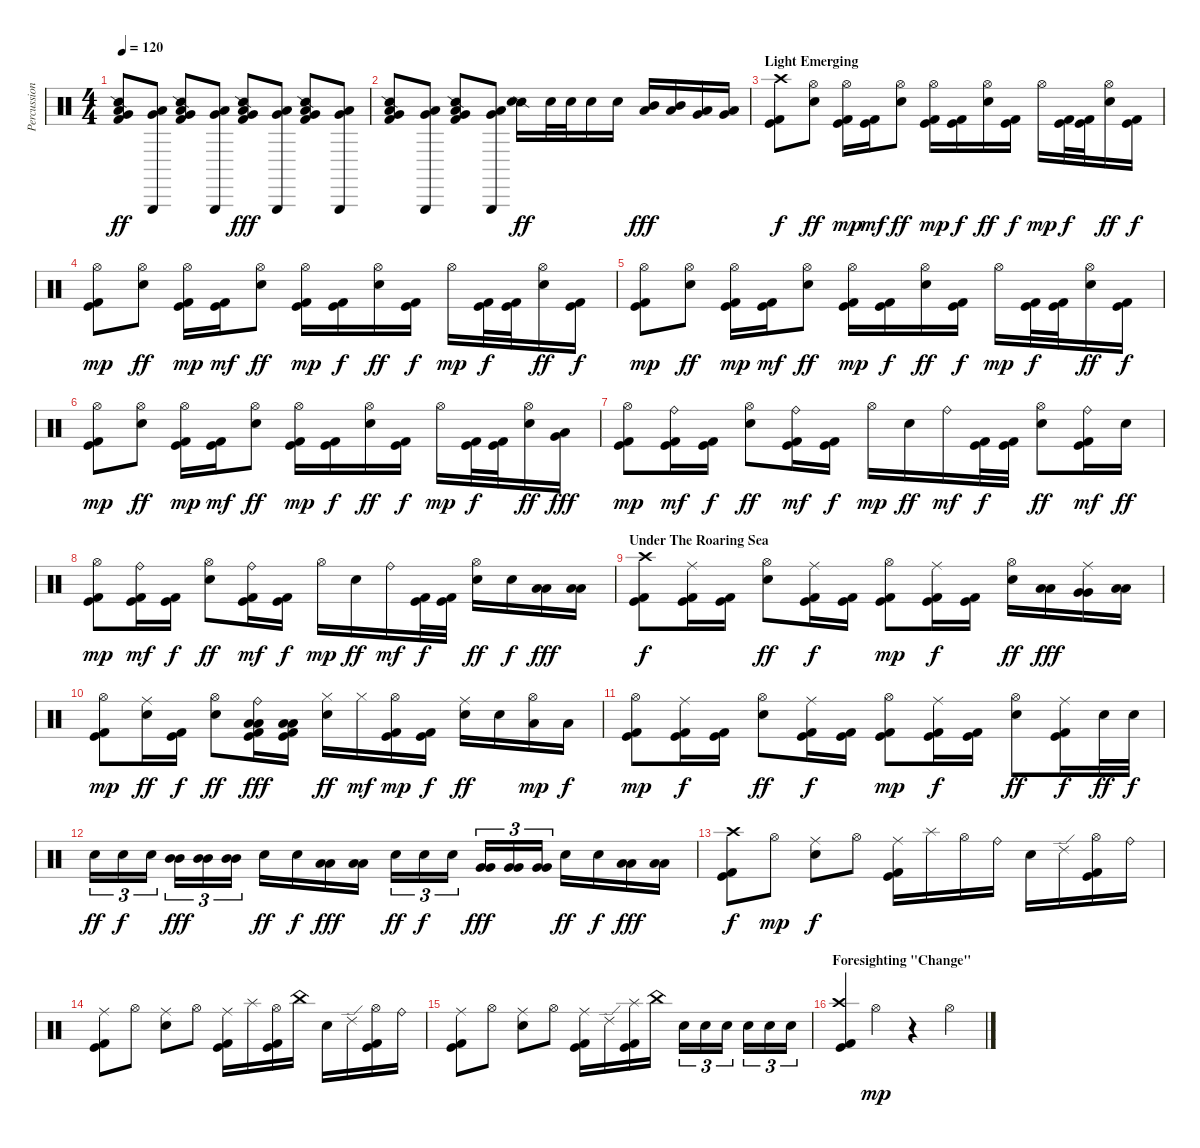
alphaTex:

\track ("Percussion" "Percussion") {instrument percussion}
\staff {score}
\articulation defaults
\ts (4 4)
\tempo 120
\clef neutral
\ks c
("Snare (side stick) 2" "Low Tom (hit)" "Very Low Tom (hit)" "Kick (hit) 2").8{dy ff} ("Triangle (hit)" "Low Tom (hit)" "Very Low Tom (hit)").8 ("Snare (side stick) 2" "Low Tom (hit)" "Very Low Tom (hit)" "Kick (hit) 2").8 ("Triangle (hit)" "Low Tom (hit)" "Very Low Tom (hit)").8 ("Snare (side stick) 2" "Low Tom (hit)" "Very Low Tom (hit)" "Kick (hit) 2").8{dy fff} ("Triangle (hit)" "Low Tom (hit)" "Very Low Tom (hit)").8 ("Snare (side stick) 2" "Low Tom (hit)" "Very Low Tom (hit)" "Kick (hit) 2").8 ("Triangle (hit)" "Low Tom (hit)" "Very Low Tom (hit)").8 |
("Snare (side stick) 2" "Low Tom (hit)" "Very Low Tom (hit)" "Kick (hit) 2").8 ("Triangle (hit)" "Low Tom (hit)" "Very Low Tom (hit)").8 ("Snare (side stick) 2" "Low Tom (hit)" "Very Low Tom (hit)" "Kick (hit) 2").8 ("Triangle (hit)" "Low Tom (hit)" "Very Low Tom (hit)").8 ("Snare (side stick) 2" "Snare (hit) 2").16{dy ff} "Snare (hit) 2".32 "Snare (hit) 2".32 "Snare (hit) 2".16 "Snare (hit) 2".16 ("Mid Tom (hit)" "Low Tom (hit)").16{dy fff} ("Mid Tom (hit)" "Low Tom (hit)").16 ("Low Tom (hit)" "Very Low Tom (hit)").16 ("Low Tom (hit)" "Very Low Tom (hit)").16 |
\section ("" "Light Emerging")
("Crash high (hit)" "Kick (hit)" "Kick (hit) 2").8{dy f} ("Hi-Hat (open)" "Snare (hit) 2").8{dy ff} ("Hi-Hat (open)" "Kick (hit)" "Kick (hit) 2").16{dy mp} ("Kick (hit)" "Kick (hit) 2").16{dy mf} ("Hi-Hat (open)" "Snare (hit) 2").8{dy ff} ("Hi-Hat (open)" "Kick (hit)" "Kick (hit) 2").16{dy mp} ("Kick (hit)" "Kick (hit) 2").16{dy f} ("Hi-Hat (open)" "Snare (hit) 2").16{dy ff} ("Kick (hit)" "Kick (hit) 2").16{dy f} "Hi-Hat (open)".16{dy mp} ("Kick (hit)" "Kick (hit) 2").32{dy f} ("Kick (hit)" "Kick (hit) 2").32 ("Hi-Hat (open)" "Snare (hit) 2").16{dy ff} ("Kick (hit)" "Kick (hit) 2").16{dy f} |
("Hi-Hat (open)" "Kick (hit)" "Kick (hit) 2").8{dy mp} ("Hi-Hat (open)" "Snare (hit) 2").8{dy ff} ("Hi-Hat (open)" "Kick (hit)" "Kick (hit) 2").16{dy mp} ("Kick (hit)" "Kick (hit) 2").16{dy mf} ("Hi-Hat (open)" "Snare (hit) 2").8{dy ff} ("Hi-Hat (open)" "Kick (hit)" "Kick (hit) 2").16{dy mp} ("Kick (hit)" "Kick (hit) 2").16{dy f} ("Hi-Hat (open)" "Snare (hit) 2").16{dy ff} ("Kick (hit)" "Kick (hit) 2").16{dy f} "Hi-Hat (open)".16{dy mp} ("Kick (hit)" "Kick (hit) 2").32{dy f} ("Kick (hit)" "Kick (hit) 2").32 ("Hi-Hat (open)" "Snare (hit) 2").16{dy ff} ("Kick (hit)" "Kick (hit) 2").16{dy f} |
("Hi-Hat (open)" "Kick (hit)" "Kick (hit) 2").8{dy mp} ("Hi-Hat (open)" "Snare (hit) 2").8{dy ff} ("Hi-Hat (open)" "Kick (hit)" "Kick (hit) 2").16{dy mp} ("Kick (hit)" "Kick (hit) 2").16{dy mf} ("Hi-Hat (open)" "Snare (hit) 2").8{dy ff} ("Hi-Hat (open)" "Kick (hit)" "Kick (hit) 2").16{dy mp} ("Kick (hit)" "Kick (hit) 2").16{dy f} ("Hi-Hat (open)" "Snare (hit) 2").16{dy ff} ("Kick (hit)" "Kick (hit) 2").16{dy f} "Hi-Hat (open)".16{dy mp} ("Kick (hit)" "Kick (hit) 2").32{dy f} ("Kick (hit)" "Kick (hit) 2").32 ("Hi-Hat (open)" "Snare (hit) 2").16{dy ff} ("Kick (hit)" "Kick (hit) 2").16{dy f} |
("Hi-Hat (open)" "Kick (hit)" "Kick (hit) 2").8{dy mp} ("Hi-Hat (open)" "Snare (hit) 2").8{dy ff} ("Hi-Hat (open)" "Kick (hit)" "Kick (hit) 2").16{dy mp} ("Kick (hit)" "Kick (hit) 2").16{dy mf} ("Hi-Hat (open)" "Snare (hit) 2").8{dy ff} ("Hi-Hat (open)" "Kick (hit)" "Kick (hit) 2").16{dy mp} ("Kick (hit)" "Kick (hit) 2").16{dy f} ("Hi-Hat (open)" "Snare (hit) 2").16{dy ff} ("Kick (hit)" "Kick (hit) 2").16{dy f} "Hi-Hat (open)".16{dy mp} ("Kick (hit)" "Kick (hit) 2").32{dy f} ("Kick (hit)" "Kick (hit) 2").32 ("Hi-Hat (open)" "Snare (hit) 2").16{dy ff} ("Very Low Tom (hit)" "Low Tom (hit)").16{dy fff} |
("Hi-Hat (open)" "Kick (hit)" "Kick (hit) 2").8{dy mp} ("Ride (bell)" "Kick (hit)" "Kick (hit) 2").16{dy mf} ("Kick (hit)" "Kick (hit) 2").16{dy f} ("Hi-Hat (open)" "Snare (hit) 2").8{dy ff} ("Ride (bell)" "Kick (hit)" "Kick (hit) 2").16{dy mf} ("Kick (hit)" "Kick (hit) 2").16{dy f} "Hi-Hat (open)".16{dy mp} "Snare (hit) 2".16{dy ff} "Ride (bell)".16{dy mf} ("Kick (hit)" "Kick (hit) 2").32{dy f} ("Kick (hit)" "Kick (hit) 2").32 ("Hi-Hat (open)" "Snare (hit) 2").8{dy ff} ("Ride (bell)" "Kick (hit)" "Kick (hit) 2").16{dy mf} "Snare (hit) 2".16{dy ff} |
("Hi-Hat (open)" "Kick (hit)" "Kick (hit) 2").8{dy mp} ("Ride (bell)" "Kick (hit)" "Kick (hit) 2").16{dy mf} ("Kick (hit)" "Kick (hit) 2").16{dy f} ("Hi-Hat (open)" "Snare (hit) 2").8{dy ff} ("Ride (bell)" "Kick (hit)" "Kick (hit) 2").16{dy mf} ("Kick (hit)" "Kick (hit) 2").16{dy f} "Hi-Hat (open)".16{dy mp} "Snare (hit) 2".16{dy ff} "Ride (bell)".16{dy mf} ("Kick (hit)" "Kick (hit) 2").32{dy f} ("Kick (hit)" "Kick (hit) 2").32 ("Hi-Hat (open)" "Snare (hit) 2").16{dy ff} "Snare (hit) 2".16{dy f} ("Low Tom (hit)" "Low Tom (hit)").16{dy fff} ("Low Tom (hit)" "Low Tom (hit)").16 |
\section ("" "Under The Roaring Sea")
("Crash high (hit)" "Kick (hit)" "Kick (hit) 2").8{dy f} ("Ride (middle)" "Kick (hit)" "Kick (hit) 2").16 ("Kick (hit)" "Kick (hit) 2").16 ("Hi-Hat (open)" "Snare (hit) 2").8{dy ff} ("Ride (middle)" "Kick (hit)" "Kick (hit) 2").16{dy f} ("Kick (hit)" "Kick (hit) 2").16 ("Hi-Hat (open)" "Kick (hit)" "Kick (hit) 2").8{dy mp} ("Ride (middle)" "Kick (hit)" "Kick (hit) 2").16{dy f} ("Kick (hit)" "Kick (hit) 2").16 ("Hi-Hat (open)" "Snare (hit) 2").16{dy ff} ("Low Tom (hit)" "Low Tom (hit)").16{dy fff} ("Ride (middle)" "Very Low Tom (hit)" "Very Low Tom (hit)").16 ("Low Floor Tom (hit)" "Low Floor Tom (hit)").16 |
("Hi-Hat (open)" "Kick (hit)" "Kick (hit) 2").8{dy mp} ("Ride (middle)" "Snare (hit) 2").16{dy ff} ("Kick (hit)" "Kick (hit) 2").16{dy f} ("Hi-Hat (open)" "Snare (hit) 2").8{dy ff} ("Ride (bell)" "Low Tom (hit)" "Low Tom (hit)" "Kick (hit)" "Kick (hit) 2").16{dy fff} ("Low Tom (hit)" "Low Tom (hit)" "Kick (hit)" "Kick (hit) 2").16 ("Hi-Hat (closed)" "Snare (hit) 2").16{dy ff} "Hi-Hat (closed)".16{dy mf} ("Hi-Hat (open)" "Kick (hit)" "Kick (hit) 2").16{dy mp} ("Kick (hit)" "Kick (hit) 2").16{dy f} ("Ride (middle)" "Snare (hit) 2").16{dy ff} "Snare (hit) 2".16 ("Hi-Hat (open)" "Low Tom (hit)").16{dy mp} "Low Tom (hit)".16{dy f} |
("Hi-Hat (open)" "Kick (hit)" "Kick (hit) 2").8{dy mp} ("Ride (middle)" "Kick (hit)" "Kick (hit) 2").16{dy f} ("Kick (hit)" "Kick (hit) 2").16 ("Hi-Hat (open)" "Snare (hit) 2").8{dy ff} ("Ride (middle)" "Kick (hit)" "Kick (hit) 2").16{dy f} ("Kick (hit)" "Kick (hit) 2").16 ("Hi-Hat (open)" "Kick (hit)" "Kick (hit) 2").8{dy mp} ("Ride (middle)" "Kick (hit)" "Kick (hit) 2").16{dy f} ("Kick (hit)" "Kick (hit) 2").16 ("Hi-Hat (open)" "Snare (hit) 2").8{dy ff} ("Ride (middle)" "Kick (hit)" "Kick (hit) 2").16{dy f} "Snare (hit) 2".32{dy ff} "Snare (hit) 2".32{dy f} |
"Snare (hit) 2".16{tu (3 2) dy ff} "Snare (hit) 2".16{tu (3 2) dy f} "Snare (hit) 2".16{tu (3 2)} ("Mid Tom (hit)" "Mid Tom (hit)").16{tu (3 2) dy fff} ("Mid Tom (hit)" "Mid Tom (hit)").16{tu (3 2)} ("Mid Tom (hit)" "Mid Tom (hit)").16{tu (3 2)} "Snare (hit) 2".16{dy ff} "Snare (hit) 2".16{dy f} ("Low Tom (hit)" "Low Tom (hit)").16{dy fff} ("Low Tom (hit)" "Low Tom (hit)").16 "Snare (hit) 2".16{tu (3 2) dy ff} "Snare (hit) 2".16{tu (3 2) dy f} "Snare (hit) 2".16{tu (3 2)} ("Very Low Tom (hit)" "Very Low Tom (hit)").16{tu (3 2) dy fff} ("Very Low Tom (hit)" "Very Low Tom (hit)").16{tu (3 2)} ("Very Low Tom (hit)" "Very Low Tom (hit)").16{tu (3 2)} "Snare (hit) 2".16{dy ff} "Snare (hit) 2".16{dy f} ("Low Floor Tom (hit)" "Low Floor Tom (hit)").16{dy fff} ("Low Floor Tom (hit)" "Low Floor Tom (hit)").16 |
("Crash high (hit)" "Kick (hit)" "Kick (hit) 2").8{dy f} "Hi-Hat (open)".8{dy mp} ("Ride (middle)" "Snare (hit) 2").8{dy f} "Hi-Hat (open)".8 ("Ride (middle)" "Kick (hit)" "Kick (hit) 2").16 "Splash (hit)".16 "Hi-Hat (open)".16 "Ride (bell)".16 "Snare (hit) 2".16 "Ride (edge) 2".16 ("Hi-Hat (open)" "Kick (hit)" "Kick (hit) 2").16 "Ride (bell)".16 |
("Ride (middle)" "Kick (hit)" "Kick (hit) 2").8 "Hi-Hat (open)".8 ("Ride (middle)" "Snare (hit) 2").8 "Hi-Hat (open)".8 ("Ride (middle)" "Kick (hit)" "Kick (hit) 2").16 "Splash (hit)".16 ("Hi-Hat (open)" "Kick (hit)" "Kick (hit) 2").16 "China (hit)".16 "Snare (hit) 2".16 "Ride (edge) 2".16 ("Hi-Hat (open)" "Kick (hit)" "Kick (hit) 2").16 "Ride (bell)".16 |
("Ride (middle)" "Kick (hit)" "Kick (hit) 2").8 "Hi-Hat (open)".8 ("Ride (middle)" "Snare (hit) 2").8 "Hi-Hat (open)".8 ("Ride (middle)" "Kick (hit)" "Kick (hit) 2").16 "Ride (edge) 2".16 ("Splash (hit)" "Kick (hit)" "Kick (hit) 2").16 "China (hit)".16 "Snare (hit) 2".16{tu (3 2)} "Snare (hit) 2".16{tu (3 2)} "Snare (hit) 2".16{tu (3 2)} "Snare (hit) 2".16{tu (3 2)} "Snare (hit) 2".16{tu (3 2)} "Snare (hit) 2".16{tu (3 2)} |
\section ("" "Foresighting \"Change\"")
("Crash high (hit)" "Kick (hit)" "Kick (hit) 2").4 "Hi-Hat (open)".4{dy mp} r.4 "Hi-Hat (open)".4
